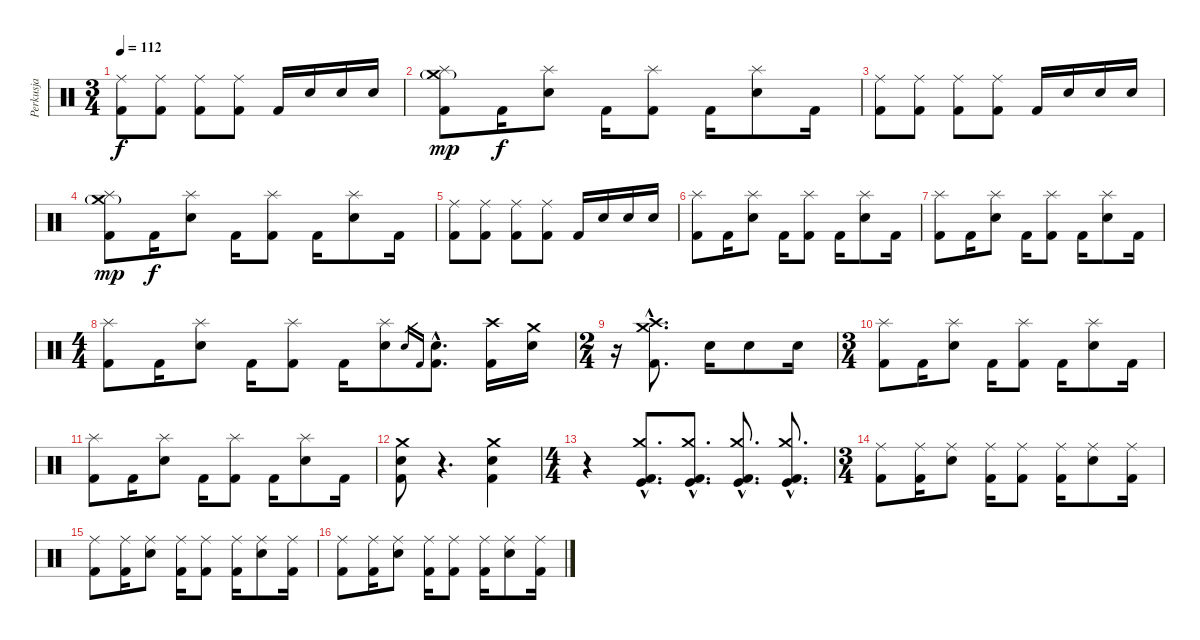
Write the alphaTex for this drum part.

\track ("Perkusja" "Perkusja") {instrument percussion}
\staff {score}
\articulation defaults
\ts (3 4)
\tempo 112
\clef neutral
\ks c
("Ride (middle)" "Kick (hit) 2").8{dy f} ("Ride (middle)" "Kick (hit) 2").8 ("Ride (middle)" "Kick (hit) 2").8 ("Ride (middle)" "Kick (hit) 2").8 "Kick (hit) 2".16 "Electric Snare (hit)".16 "Electric Snare (hit)".16 "Electric Snare (hit)".16 |
("Splash (hit)" "Crash medium (hit)"{g} "Kick (hit) 2").8{dy mp} "Kick (hit) 2".16{dy f} ("Splash (hit)" "Electric Snare (hit)").8 "Kick (hit) 2".16 ("Splash (hit)" "Kick (hit) 2").8 "Kick (hit) 2".16 ("Splash (hit)" "Electric Snare (hit)").8 "Kick (hit) 2".16 |
("Ride (middle)" "Kick (hit) 2").8 ("Ride (middle)" "Kick (hit) 2").8 ("Ride (middle)" "Kick (hit) 2").8 ("Ride (middle)" "Kick (hit) 2").8 "Kick (hit) 2".16 "Electric Snare (hit)".16 "Electric Snare (hit)".16 "Electric Snare (hit)".16 |
("Splash (hit)" "Crash medium (hit)"{g} "Kick (hit) 2").8{dy mp} "Kick (hit) 2".16{dy f} ("Splash (hit)" "Electric Snare (hit)").8 "Kick (hit) 2".16 ("Splash (hit)" "Kick (hit) 2").8 "Kick (hit) 2".16 ("Splash (hit)" "Electric Snare (hit)").8 "Kick (hit) 2".16 |
("Ride (middle)" "Kick (hit) 2").8 ("Ride (middle)" "Kick (hit) 2").8 ("Ride (middle)" "Kick (hit) 2").8 ("Ride (middle)" "Kick (hit) 2").8 "Kick (hit) 2".16 "Electric Snare (hit)".16 "Electric Snare (hit)".16 "Electric Snare (hit)".16 |
("Splash (hit)" "Kick (hit) 2").8 "Kick (hit) 2".16 ("Splash (hit)" "Electric Snare (hit)").8 "Kick (hit) 2".16 ("Splash (hit)" "Kick (hit) 2").8 "Kick (hit) 2".16 ("Splash (hit)" "Electric Snare (hit)").8 "Kick (hit) 2".16 |
("Splash (hit)" "Kick (hit) 2").8 "Kick (hit) 2".16 ("Splash (hit)" "Electric Snare (hit)").8 "Kick (hit) 2".16 ("Splash (hit)" "Kick (hit) 2").8 "Kick (hit) 2".16 ("Splash (hit)" "Electric Snare (hit)").8 "Kick (hit) 2".16 |
\ts (4 4)
("Splash (hit)" "Kick (hit) 2").8 "Kick (hit) 2".16 ("Splash (hit)" "Electric Snare (hit)").8 "Kick (hit) 2".16 ("Splash (hit)" "Kick (hit) 2").8 "Kick (hit) 2".16 ("Splash (hit)" "Electric Snare (hit)").8 "Electric Snare (hit)".16{gr} "Kick (hit) 2".16{gr} ("Electric Snare (hit)"{hac} "Kick (hit) 2"{hac}).8{d} ("Crash high (hit)" "Kick (hit) 2").16 ("Crash medium (hit)" "Electric Snare (hit)").16 |
\ts (2 4)
r.16 ("Crash high (hit)"{hac} "Crash medium (hit)"{hac} "Kick (hit) 2"{hac}).8{d} "Electric Snare (hit)".16 "Electric Snare (hit)".8 "Electric Snare (hit)".16 |
\ts (3 4)
("Splash (hit)" "Kick (hit) 2").8 "Kick (hit) 2".16 ("Splash (hit)" "Electric Snare (hit)").8 "Kick (hit) 2".16 ("Splash (hit)" "Kick (hit) 2").8 "Kick (hit) 2".16 ("Splash (hit)" "Electric Snare (hit)").8 "Kick (hit) 2".16 |
("Splash (hit)" "Kick (hit) 2").8 "Kick (hit) 2".16 ("Splash (hit)" "Electric Snare (hit)").8 "Kick (hit) 2".16 ("Splash (hit)" "Kick (hit) 2").8 "Kick (hit) 2".16 ("Splash (hit)" "Electric Snare (hit)").8 "Kick (hit) 2".16 |
("Crash medium (hit)" "Electric Snare (hit)" "Kick (hit) 2").8 r.4{d} ("Crash medium (hit)" "Electric Snare (hit)" "Kick (hit) 2").4 |
\ts (4 4)
r.4 ("Crash medium (hit)"{hac} "Kick (hit)"{hac} "Kick (hit) 2"{hac}).8{d} ("Crash medium (hit)"{hac} "Kick (hit)"{hac} "Kick (hit) 2"{hac}).8{d} ("Crash medium (hit)"{hac} "Kick (hit)"{hac} "Kick (hit) 2"{hac}).8{d} ("Crash medium (hit)"{hac} "Kick (hit)"{hac} "Kick (hit) 2"{hac}).8{d} |
\ts (3 4)
("Ride (middle)" "Kick (hit) 2").8 ("Ride (middle)" "Kick (hit) 2").16 ("Ride (middle)" "Electric Snare (hit)").8 ("Ride (middle)" "Kick (hit) 2").16 ("Ride (middle)" "Kick (hit) 2").8 ("Ride (middle)" "Kick (hit) 2").16 ("Ride (middle)" "Electric Snare (hit)").8 ("Ride (middle)" "Kick (hit) 2").16 |
("Ride (middle)" "Kick (hit) 2").8 ("Ride (middle)" "Kick (hit) 2").16 ("Ride (middle)" "Electric Snare (hit)").8 ("Ride (middle)" "Kick (hit) 2").16 ("Ride (middle)" "Kick (hit) 2").8 ("Ride (middle)" "Kick (hit) 2").16 ("Ride (middle)" "Electric Snare (hit)").8 ("Ride (middle)" "Kick (hit) 2").16 |
("Ride (middle)" "Kick (hit) 2").8 ("Ride (middle)" "Kick (hit) 2").16 ("Ride (middle)" "Electric Snare (hit)").8 ("Ride (middle)" "Kick (hit) 2").16 ("Ride (middle)" "Kick (hit) 2").8 ("Ride (middle)" "Kick (hit) 2").16 ("Ride (middle)" "Electric Snare (hit)").8 ("Ride (middle)" "Kick (hit) 2").16
